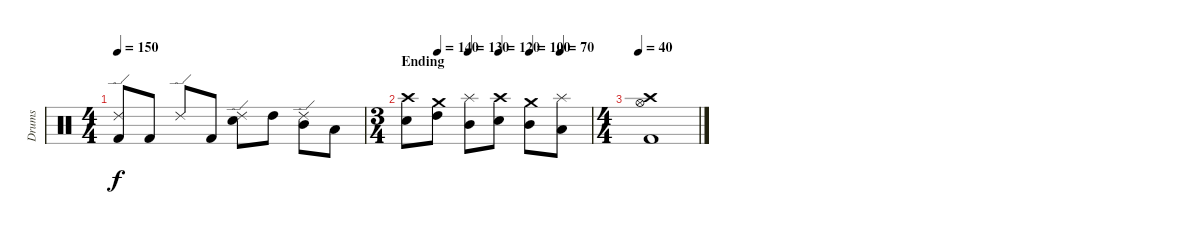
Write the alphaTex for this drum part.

\track ("Drums" "Drums") {instrument percussion}
\staff {score}
\articulation defaults
\ts (4 4)
\tempo 150
\clef neutral
\ks c
("Ride (edge) 2" "Kick (hit) 2").8{dy f} "Kick (hit) 2".8 "Ride (edge) 2".8 "Kick (hit) 2".8 ("Ride (edge) 2" "Electric Snare (hit)").8 "High Tom (hit)".8 ("Ride (edge) 2" "Mid Tom (hit)").8 "Low Tom (hit)".8 |
\ts (3 4)
\section ("" "Ending")
\tempo (140 0.16666666666666666)
\tempo (130 0.3333333333333333)
\tempo (120 0.5)
\tempo (100 0.6666666666666666)
\tempo (70 0.8333333333333334)
("Crash high (hit)" "Electric Snare (hit)").8 ("Crash medium (hit)" "High Tom (hit)").8 ("Splash (hit)" "Mid Tom (hit)").8 ("Crash high (hit)" "Electric Snare (hit)").8 ("Crash medium (hit)" "Mid Tom (hit)").8 ("Splash (hit)" "Low Tom (hit)").8 |
\ts (4 4)
\tempo 40
("Crash high (hit)" "Hi-Hat (open)" "Kick (hit) 2").1
